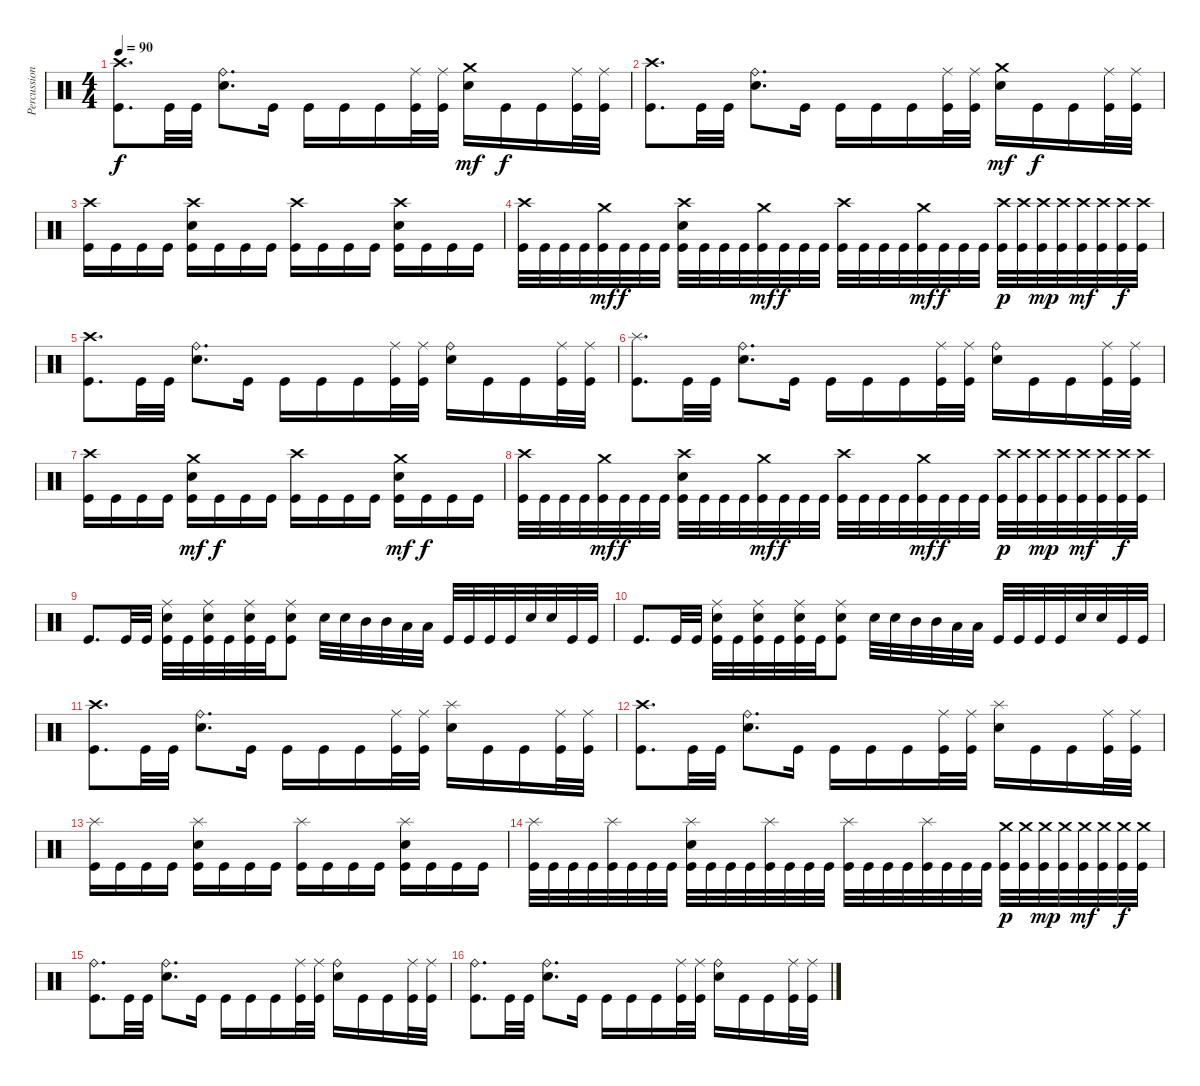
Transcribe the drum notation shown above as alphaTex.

\track ("Percussion" "Percussion") {instrument percussion}
\staff {score}
\articulation defaults
\ts (4 4)
\tempo 90
\clef neutral
\ks c
("Crash high (hit)" "Kick (hit)").8{d dy f} "Kick (hit)".32 "Kick (hit)".32 ("Ride (bell)" "Electric Snare (hit)").8{d} "Kick (hit)".16 "Kick (hit)".16 "Kick (hit)".16 "Kick (hit)".16 ("Ride (middle)" "Kick (hit)").32 ("Ride (middle)" "Kick (hit)").32 ("Crash medium (hit)" "Electric Snare (hit)").16{dy mf} "Kick (hit)".16{dy f} "Kick (hit)".16 ("Ride (middle)" "Kick (hit)").32 ("Ride (middle)" "Kick (hit)").32 |
("Crash high (hit)" "Kick (hit)").8{d} "Kick (hit)".32 "Kick (hit)".32 ("Ride (bell)" "Electric Snare (hit)").8{d} "Kick (hit)".16 "Kick (hit)".16 "Kick (hit)".16 "Kick (hit)".16 ("Ride (middle)" "Kick (hit)").32 ("Ride (middle)" "Kick (hit)").32 ("Crash medium (hit)" "Electric Snare (hit)").16{dy mf} "Kick (hit)".16{dy f} "Kick (hit)".16 ("Ride (middle)" "Kick (hit)").32 ("Ride (middle)" "Kick (hit)").32 |
("Crash high (hit)" "Kick (hit)").16 "Kick (hit)".16 "Kick (hit)".16 "Kick (hit)".16 ("Crash high (hit)" "Electric Snare (hit)" "Kick (hit)").16 "Kick (hit)".16 "Kick (hit)".16 "Kick (hit)".16 ("Crash high (hit)" "Kick (hit)").16 "Kick (hit)".16 "Kick (hit)".16 "Kick (hit)".16 ("Crash high (hit)" "Electric Snare (hit)" "Kick (hit)").16 "Kick (hit)".16 "Kick (hit)".16 "Kick (hit)".16 |
("Crash high (hit)" "Kick (hit)").32 "Kick (hit)".32 "Kick (hit)".32 "Kick (hit)".32 ("Crash medium (hit)" "Kick (hit)").32{dy mf} "Kick (hit)".32{dy f} "Kick (hit)".32 "Kick (hit)".32 ("Crash high (hit)" "Electric Snare (hit)" "Kick (hit)").32 "Kick (hit)".32 "Kick (hit)".32 "Kick (hit)".32 ("Crash medium (hit)" "Kick (hit)").32{dy mf} "Kick (hit)".32{dy f} "Kick (hit)".32 "Kick (hit)".32 ("Crash high (hit)" "Kick (hit)").32 "Kick (hit)".32 "Kick (hit)".32 "Kick (hit)".32 ("Crash medium (hit)" "Kick (hit)").32{dy mf} "Kick (hit)".32{dy f} "Kick (hit)".32 "Kick (hit)".32 ("Crash high (hit)" "Kick (hit)").32{dy p} ("Crash high (hit)" "Kick (hit)").32 ("Crash high (hit)" "Kick (hit)").32{dy mp} ("Crash high (hit)" "Kick (hit)").32 ("Crash high (hit)" "Kick (hit)").32{dy mf} ("Crash high (hit)" "Kick (hit)").32 ("Crash high (hit)" "Kick (hit)").32{dy f} ("Crash high (hit)" "Kick (hit)").32 |
("Crash high (hit)" "Kick (hit)").8{d} "Kick (hit)".32 "Kick (hit)".32 ("Ride (bell)" "Electric Snare (hit)").8{d} "Kick (hit)".16 "Kick (hit)".16 "Kick (hit)".16 "Kick (hit)".16 ("Ride (middle)" "Kick (hit)").32 ("Ride (middle)" "Kick (hit)").32 ("Ride (bell)" "Electric Snare (hit)").16 "Kick (hit)".16 "Kick (hit)".16 ("Ride (middle)" "Kick (hit)").32 ("Ride (middle)" "Kick (hit)").32 |
("Splash (hit)" "Kick (hit)").8{d} "Kick (hit)".32 "Kick (hit)".32 ("Ride (bell)" "Electric Snare (hit)").8{d} "Kick (hit)".16 "Kick (hit)".16 "Kick (hit)".16 "Kick (hit)".16 ("Ride (middle)" "Kick (hit)").32 ("Ride (middle)" "Kick (hit)").32 ("Ride (bell)" "Electric Snare (hit)").16 "Kick (hit)".16 "Kick (hit)".16 ("Ride (middle)" "Kick (hit)").32 ("Ride (middle)" "Kick (hit)").32 |
("Crash high (hit)" "Kick (hit)").16 "Kick (hit)".16 "Kick (hit)".16 "Kick (hit)".16 ("Crash medium (hit)" "Electric Snare (hit)" "Kick (hit)").16{dy mf} "Kick (hit)".16{dy f} "Kick (hit)".16 "Kick (hit)".16 ("Crash high (hit)" "Kick (hit)").16 "Kick (hit)".16 "Kick (hit)".16 "Kick (hit)".16 ("Crash medium (hit)" "Electric Snare (hit)" "Kick (hit)").16{dy mf} "Kick (hit)".16{dy f} "Kick (hit)".16 "Kick (hit)".16 |
("Crash high (hit)" "Kick (hit)").32 "Kick (hit)".32 "Kick (hit)".32 "Kick (hit)".32 ("Crash medium (hit)" "Kick (hit)").32{dy mf} "Kick (hit)".32{dy f} "Kick (hit)".32 "Kick (hit)".32 ("Crash high (hit)" "Electric Snare (hit)" "Kick (hit)").32 "Kick (hit)".32 "Kick (hit)".32 "Kick (hit)".32 ("Crash medium (hit)" "Kick (hit)").32{dy mf} "Kick (hit)".32{dy f} "Kick (hit)".32 "Kick (hit)".32 ("Crash high (hit)" "Kick (hit)").32 "Kick (hit)".32 "Kick (hit)".32 "Kick (hit)".32 ("Crash medium (hit)" "Kick (hit)").32{dy mf} "Kick (hit)".32{dy f} "Kick (hit)".32 "Kick (hit)".32 ("Crash high (hit)" "Kick (hit)").32{dy p} ("Crash high (hit)" "Kick (hit)").32 ("Crash high (hit)" "Kick (hit)").32{dy mp} ("Crash high (hit)" "Kick (hit)").32 ("Crash high (hit)" "Kick (hit)").32{dy mf} ("Crash high (hit)" "Kick (hit)").32 ("Crash high (hit)" "Kick (hit)").32{dy f} ("Crash high (hit)" "Kick (hit)").32 |
"Kick (hit)".8{d} "Kick (hit)".32 "Kick (hit)".32 ("Ride (middle)" "Electric Snare (hit)" "Kick (hit)").32 "Kick (hit)".32 ("Ride (middle)" "Electric Snare (hit)" "Kick (hit)").32 "Kick (hit)".32 ("Ride (middle)" "Electric Snare (hit)" "Kick (hit)").32 "Kick (hit)".32 ("Ride (middle)" "Electric Snare (hit)" "Kick (hit)").8 "Electric Snare (hit)".32 "Electric Snare (hit)".32 "Mid Tom (hit)".32 "Mid Tom (hit)".32 "Low Tom (hit)".32 "Low Tom (hit)".32 "Kick (hit)".32 "Kick (hit)".32 "Kick (hit)".32 "Kick (hit)".32 "Electric Snare (hit)".32 "Electric Snare (hit)".32 "Kick (hit)".32 "Kick (hit)".32 |
"Kick (hit)".8{d} "Kick (hit)".32 "Kick (hit)".32 ("Ride (middle)" "Electric Snare (hit)" "Kick (hit)").32 "Kick (hit)".32 ("Ride (middle)" "Electric Snare (hit)" "Kick (hit)").32 "Kick (hit)".32 ("Ride (middle)" "Electric Snare (hit)" "Kick (hit)").32 "Kick (hit)".32 ("Ride (middle)" "Electric Snare (hit)" "Kick (hit)").8 "Electric Snare (hit)".32 "Electric Snare (hit)".32 "Mid Tom (hit)".32 "Mid Tom (hit)".32 "Low Tom (hit)".32 "Low Tom (hit)".32 "Kick (hit)".32 "Kick (hit)".32 "Kick (hit)".32 "Kick (hit)".32 "Electric Snare (hit)".32 "Electric Snare (hit)".32 "Kick (hit)".32 "Kick (hit)".32 |
("Crash high (hit)" "Kick (hit)").8{d} "Kick (hit)".32 "Kick (hit)".32 ("Ride (bell)" "Electric Snare (hit)").8{d} "Kick (hit)".16 "Kick (hit)".16 "Kick (hit)".16 "Kick (hit)".16 ("Ride (middle)" "Kick (hit)").32 ("Ride (middle)" "Kick (hit)").32 ("Splash (hit)" "Electric Snare (hit)").16 "Kick (hit)".16 "Kick (hit)".16 ("Ride (middle)" "Kick (hit)").32 ("Ride (middle)" "Kick (hit)").32 |
("Crash high (hit)" "Kick (hit)").8{d} "Kick (hit)".32 "Kick (hit)".32 ("Ride (bell)" "Electric Snare (hit)").8{d} "Kick (hit)".16 "Kick (hit)".16 "Kick (hit)".16 "Kick (hit)".16 ("Ride (middle)" "Kick (hit)").32 ("Ride (middle)" "Kick (hit)").32 ("Splash (hit)" "Electric Snare (hit)").16 "Kick (hit)".16 "Kick (hit)".16 ("Ride (middle)" "Kick (hit)").32 ("Ride (middle)" "Kick (hit)").32 |
("Splash (hit)" "Kick (hit)").16 "Kick (hit)".16 "Kick (hit)".16 "Kick (hit)".16 ("Splash (hit)" "Electric Snare (hit)" "Kick (hit)").16 "Kick (hit)".16 "Kick (hit)".16 "Kick (hit)".16 ("Splash (hit)" "Kick (hit)").16 "Kick (hit)".16 "Kick (hit)".16 "Kick (hit)".16 ("Splash (hit)" "Electric Snare (hit)" "Kick (hit)").16 "Kick (hit)".16 "Kick (hit)".16 "Kick (hit)".16 |
("Splash (hit)" "Kick (hit)").32 "Kick (hit)".32 "Kick (hit)".32 "Kick (hit)".32 ("Splash (hit)" "Kick (hit)").32 "Kick (hit)".32 "Kick (hit)".32 "Kick (hit)".32 ("Splash (hit)" "Electric Snare (hit)" "Kick (hit)").32 "Kick (hit)".32 "Kick (hit)".32 "Kick (hit)".32 ("Splash (hit)" "Kick (hit)").32 "Kick (hit)".32 "Kick (hit)".32 "Kick (hit)".32 ("Splash (hit)" "Kick (hit)").32 "Kick (hit)".32 "Kick (hit)".32 "Kick (hit)".32 ("Splash (hit)" "Kick (hit)").32 "Kick (hit)".32 "Kick (hit)".32 "Kick (hit)".32 ("Crash medium (hit)" "Kick (hit)").32{dy p} ("Crash medium (hit)" "Kick (hit)").32 ("Crash medium (hit)" "Kick (hit)").32{dy mp} ("Crash medium (hit)" "Kick (hit)").32 ("Crash medium (hit)" "Kick (hit)").32{dy mf} ("Crash medium (hit)" "Kick (hit)").32 ("Crash medium (hit)" "Kick (hit)").32{dy f} ("Crash medium (hit)" "Kick (hit)").32 |
("Ride (bell)" "Kick (hit)").8{d} "Kick (hit)".32 "Kick (hit)".32 ("Ride (bell)" "Electric Snare (hit)").8{d} "Kick (hit)".16 "Kick (hit)".16 "Kick (hit)".16 "Kick (hit)".16 ("Ride (middle)" "Kick (hit)").32 ("Ride (middle)" "Kick (hit)").32 ("Ride (bell)" "Electric Snare (hit)").16 "Kick (hit)".16 "Kick (hit)".16 ("Ride (middle)" "Kick (hit)").32 ("Ride (middle)" "Kick (hit)").32 |
("Ride (bell)" "Kick (hit)").8{d} "Kick (hit)".32 "Kick (hit)".32 ("Ride (bell)" "Electric Snare (hit)").8{d} "Kick (hit)".16 "Kick (hit)".16 "Kick (hit)".16 "Kick (hit)".16 ("Ride (middle)" "Kick (hit)").32 ("Ride (middle)" "Kick (hit)").32 ("Ride (bell)" "Electric Snare (hit)").16 "Kick (hit)".16 "Kick (hit)".16 ("Ride (middle)" "Kick (hit)").32 ("Ride (middle)" "Kick (hit)").32
